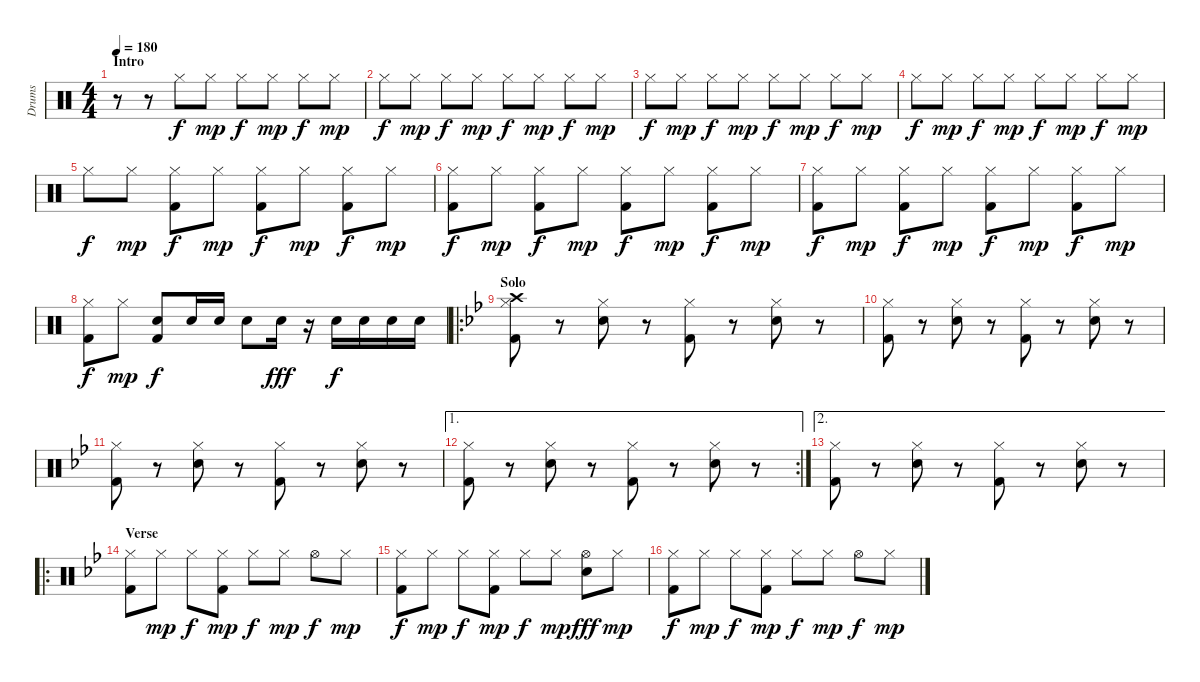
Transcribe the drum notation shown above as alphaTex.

\track ("Drums" "Drums") {instrument percussion}
\staff {score}
\articulation defaults
\ts (4 4)
\section ("" "Intro")
\tempo 180
\clef neutral
\ks c
r.8{dy f} r.8 "Hi-Hat (closed)".8 "Hi-Hat (closed)".8{dy mp} "Hi-Hat (closed)".8{dy f} "Hi-Hat (closed)".8{dy mp} "Hi-Hat (closed)".8{dy f} "Hi-Hat (closed)".8{dy mp} |
"Hi-Hat (closed)".8{dy f} "Hi-Hat (closed)".8{dy mp} "Hi-Hat (closed)".8{dy f} "Hi-Hat (closed)".8{dy mp} "Hi-Hat (closed)".8{dy f} "Hi-Hat (closed)".8{dy mp} "Hi-Hat (closed)".8{dy f} "Hi-Hat (closed)".8{dy mp} |
"Hi-Hat (closed)".8{dy f} "Hi-Hat (closed)".8{dy mp} "Hi-Hat (closed)".8{dy f} "Hi-Hat (closed)".8{dy mp} "Hi-Hat (closed)".8{dy f} "Hi-Hat (closed)".8{dy mp} "Hi-Hat (closed)".8{dy f} "Hi-Hat (closed)".8{dy mp} |
"Hi-Hat (closed)".8{dy f} "Hi-Hat (closed)".8{dy mp} "Hi-Hat (closed)".8{dy f} "Hi-Hat (closed)".8{dy mp} "Hi-Hat (closed)".8{dy f} "Hi-Hat (closed)".8{dy mp} "Hi-Hat (closed)".8{dy f} "Hi-Hat (closed)".8{dy mp} |
"Hi-Hat (closed)".8{dy f} "Hi-Hat (closed)".8{dy mp} ("Hi-Hat (closed)" "Kick (hit) 2").8{dy f} "Hi-Hat (closed)".8{dy mp} ("Hi-Hat (closed)" "Kick (hit) 2").8{dy f} "Hi-Hat (closed)".8{dy mp} ("Hi-Hat (closed)" "Kick (hit) 2").8{dy f} "Hi-Hat (closed)".8{dy mp} |
("Hi-Hat (closed)" "Kick (hit) 2").8{dy f} "Hi-Hat (closed)".8{dy mp} ("Hi-Hat (closed)" "Kick (hit) 2").8{dy f} "Hi-Hat (closed)".8{dy mp} ("Hi-Hat (closed)" "Kick (hit) 2").8{dy f} "Hi-Hat (closed)".8{dy mp} ("Hi-Hat (closed)" "Kick (hit) 2").8{dy f} "Hi-Hat (closed)".8{dy mp} |
("Hi-Hat (closed)" "Kick (hit) 2").8{dy f} "Hi-Hat (closed)".8{dy mp} ("Hi-Hat (closed)" "Kick (hit) 2").8{dy f} "Hi-Hat (closed)".8{dy mp} ("Hi-Hat (closed)" "Kick (hit) 2").8{dy f} "Hi-Hat (closed)".8{dy mp} ("Hi-Hat (closed)" "Kick (hit) 2").8{dy f} "Hi-Hat (closed)".8{dy mp} |
("Hi-Hat (closed)" "Kick (hit) 2").8{dy f} "Hi-Hat (closed)".8{dy mp} ("Snare (hit)" "Kick (hit) 2").8{dy f} "Electric Snare (hit)".16 "Electric Snare (hit)".16 "Electric Snare (hit)".8 "Electric Snare (hit)".16{dy fff} r.16 "Electric Snare (hit)".16{dy f} "Electric Snare (hit)".16 "Electric Snare (hit)".16 "Electric Snare (hit)".16 |
\ro
\section ("" "Solo")
\ks bb
("Hi-Hat (closed)" "Kick (hit) 2" "Crash high (hit)").8 r.8 ("Hi-Hat (closed)" "Electric Snare (hit)").8 r.8 ("Hi-Hat (closed)" "Kick (hit) 2").8 r.8 ("Hi-Hat (closed)" "Electric Snare (hit)").8 r.8 |
("Hi-Hat (closed)" "Kick (hit) 2").8 r.8 ("Hi-Hat (closed)" "Electric Snare (hit)").8 r.8 ("Hi-Hat (closed)" "Kick (hit) 2").8 r.8 ("Hi-Hat (closed)" "Electric Snare (hit)").8 r.8 |
("Hi-Hat (closed)" "Kick (hit) 2").8 r.8 ("Hi-Hat (closed)" "Electric Snare (hit)").8 r.8 ("Hi-Hat (closed)" "Kick (hit) 2").8 r.8 ("Hi-Hat (closed)" "Electric Snare (hit)").8 r.8 |
\ae 1
\rc 2
("Hi-Hat (closed)" "Kick (hit) 2").8 r.8 ("Hi-Hat (closed)" "Electric Snare (hit)").8 r.8 ("Hi-Hat (closed)" "Kick (hit) 2").8 r.8 ("Hi-Hat (closed)" "Electric Snare (hit)").8 r.8 |
\ae 2
("Hi-Hat (closed)" "Kick (hit) 2").8 r.8 ("Hi-Hat (closed)" "Electric Snare (hit)").8 r.8 ("Hi-Hat (closed)" "Kick (hit) 2").8 r.8 ("Hi-Hat (closed)" "Electric Snare (hit)").8 r.8 |
\ro
\section ("" "Verse")
("Hi-Hat (closed)" "Kick (hit) 2").8 "Hi-Hat (closed)".8{dy mp} "Hi-Hat (closed)".8{dy f} ("Hi-Hat (closed)" "Kick (hit) 2").8{dy mp} "Hi-Hat (closed)".8{dy f} "Hi-Hat (closed)".8{dy mp} "Hi-Hat (open)".8{dy f} "Hi-Hat (closed)".8{dy mp} |
("Hi-Hat (closed)" "Kick (hit) 2").8{dy f} "Hi-Hat (closed)".8{dy mp} "Hi-Hat (closed)".8{dy f} ("Hi-Hat (closed)" "Kick (hit) 2").8{dy mp} "Hi-Hat (closed)".8{dy f} "Hi-Hat (closed)".8{dy mp} ("Hi-Hat (open)" "Electric Snare (hit)").8{dy fff} "Hi-Hat (closed)".8{dy mp} |
("Hi-Hat (closed)" "Kick (hit) 2").8{dy f} "Hi-Hat (closed)".8{dy mp} "Hi-Hat (closed)".8{dy f} ("Hi-Hat (closed)" "Kick (hit) 2").8{dy mp} "Hi-Hat (closed)".8{dy f} "Hi-Hat (closed)".8{dy mp} "Hi-Hat (open)".8{dy f} "Hi-Hat (closed)".8{dy mp}
